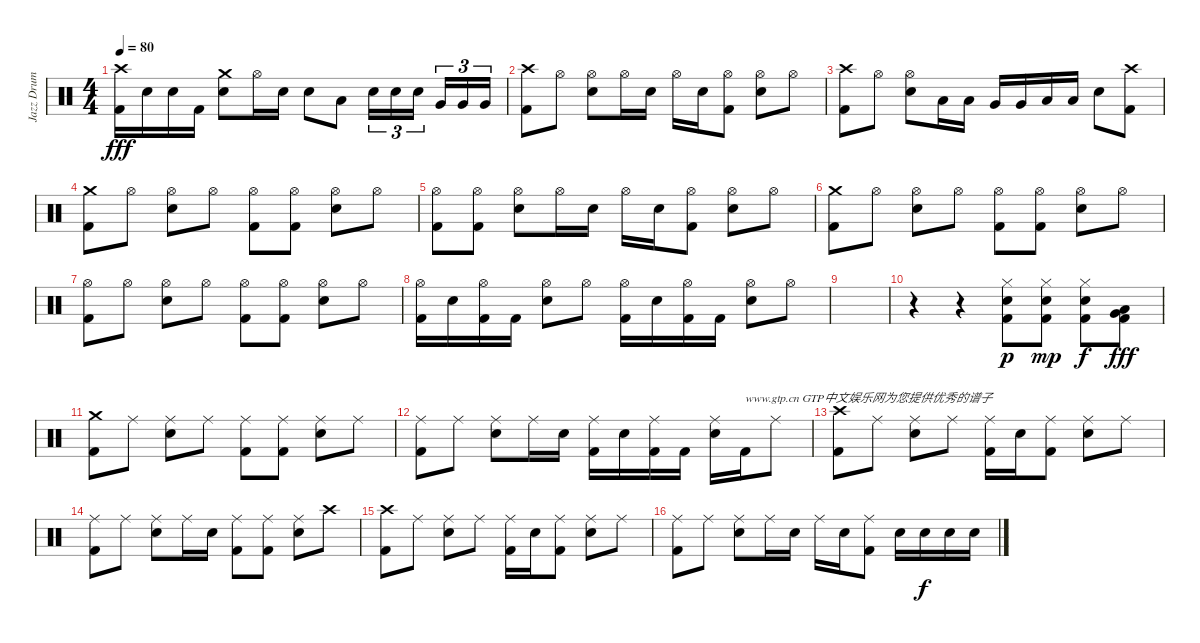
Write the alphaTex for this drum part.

\track ("Jazz Drum" "Jazz Drum") {instrument percussion}
\staff {score}
\articulation defaults
\ts (4 4)
\tempo 80
\clef neutral
\ks c
("Crash high (hit)" "Kick (hit) 2").16{dy fff} "Electric Snare (hit)".16 "Electric Snare (hit)".16 "Kick (hit) 2".16 ("Crash medium (hit)" "Electric Snare (hit)").8 "Hi-Hat (open)".16 "Electric Snare (hit)".16 "Electric Snare (hit)".8 "Low Tom (hit)".8 "Electric Snare (hit)".16{tu (3 2)} "Electric Snare (hit)".16{tu (3 2)} "Electric Snare (hit)".16{tu (3 2) beam splitsecondary} "Very Low Tom (hit)".16{tu (3 2)} "Very Low Tom (hit)".16{tu (3 2)} "Very Low Tom (hit)".16{tu (3 2)} |
("Crash high (hit)" "Kick (hit) 2").8 "Hi-Hat (open)".8 ("Hi-Hat (open)" "Electric Snare (hit)").8 "Hi-Hat (open)".16 "Electric Snare (hit)".16 "Hi-Hat (open)".16 "Electric Snare (hit)".16 ("Hi-Hat (open)" "Kick (hit) 2").8 ("Hi-Hat (open)" "Electric Snare (hit)").8 "Hi-Hat (open)".8 |
("Crash high (hit)" "Kick (hit) 2").8 "Hi-Hat (open)".8 ("Hi-Hat (open)" "Electric Snare (hit)").8 "Low Tom (hit)".16 "Low Tom (hit)".16 "Very Low Tom (hit)".16 "Very Low Tom (hit)".16 "Low Floor Tom (hit)".16 "Low Floor Tom (hit)".16 "Electric Snare (hit)".8 ("Crash high (hit)" "Kick (hit) 2").8 |
("Crash medium (hit)" "Kick (hit) 2").8 "Hi-Hat (open)".8 ("Hi-Hat (open)" "Electric Snare (hit)").8 "Hi-Hat (open)".8 ("Hi-Hat (open)" "Kick (hit) 2").8 ("Hi-Hat (open)" "Kick (hit) 2").8 ("Hi-Hat (open)" "Electric Snare (hit)").8 "Hi-Hat (open)".8 |
("Hi-Hat (open)" "Kick (hit) 2").8 ("Hi-Hat (open)" "Kick (hit) 2").8 ("Hi-Hat (open)" "Electric Snare (hit)").8 "Hi-Hat (open)".16 "Electric Snare (hit)".16 "Hi-Hat (open)".16 "Electric Snare (hit)".16 ("Hi-Hat (open)" "Kick (hit) 2").8 ("Hi-Hat (open)" "Electric Snare (hit)").8 "Hi-Hat (open)".8 |
("Crash medium (hit)" "Kick (hit) 2").8 "Hi-Hat (open)".8 ("Hi-Hat (open)" "Electric Snare (hit)").8 "Hi-Hat (open)".8 ("Hi-Hat (open)" "Kick (hit) 2").8 ("Hi-Hat (open)" "Kick (hit) 2").8 ("Hi-Hat (open)" "Electric Snare (hit)").8 "Hi-Hat (open)".8 |
("Hi-Hat (open)" "Kick (hit) 2").8 "Hi-Hat (open)".8 ("Hi-Hat (open)" "Electric Snare (hit)").8 "Hi-Hat (open)".8 ("Hi-Hat (open)" "Kick (hit) 2").8 ("Hi-Hat (open)" "Kick (hit) 2").8 ("Hi-Hat (open)" "Electric Snare (hit)").8 "Hi-Hat (open)".8 |
("Hi-Hat (open)" "Kick (hit) 2").16 "Electric Snare (hit)".16 ("Hi-Hat (open)" "Kick (hit) 2").16 "Kick (hit) 2".16 ("Hi-Hat (open)" "Electric Snare (hit)").8 "Hi-Hat (open)".8 ("Hi-Hat (open)" "Kick (hit) 2").16 "Electric Snare (hit)".16 ("Hi-Hat (open)" "Kick (hit) 2").16 "Kick (hit) 2".16 ("Hi-Hat (open)" "Electric Snare (hit)").8 "Hi-Hat (open)".8 |
|
r.4 r.4 ("Hi-Hat (closed)" "Electric Snare (hit)" "Kick (hit) 2").8{dy p} ("Hi-Hat (closed)" "Electric Snare (hit)" "Kick (hit) 2").8{dy mp} ("Hi-Hat (closed)" "Electric Snare (hit)" "Kick (hit) 2").8{dy f} ("Low Tom (hit)" "Very Low Tom (hit)" "Kick (hit) 2").8{dy fff} |
("Crash medium (hit)" "Kick (hit) 2").8 "Ride (middle)".8 ("Ride (middle)" "Electric Snare (hit)").8 "Ride (middle)".8 ("Ride (middle)" "Kick (hit) 2").8 ("Ride (middle)" "Kick (hit) 2").8 ("Ride (middle)" "Electric Snare (hit)").8 "Ride (middle)".8 |
("Ride (middle)" "Kick (hit) 2").8 "Ride (middle)".8 ("Ride (middle)" "Electric Snare (hit)").8 "Ride (middle)".16 "Electric Snare (hit)".16 ("Ride (middle)" "Kick (hit) 2").16 "Electric Snare (hit)".16 ("Ride (middle)" "Kick (hit) 2").16 "Kick (hit) 2".16 ("Ride (middle)" "Electric Snare (hit)").16 "Kick (hit) 2".16{txt "www.gtp.cn GTP中文娱乐网为您提供优秀的谱子"} "Ride (middle)".8 |
("Crash high (hit)" "Kick (hit) 2").8 "Ride (middle)".8 ("Ride (middle)" "Electric Snare (hit)").8 "Ride (middle)".8 ("Ride (middle)" "Kick (hit) 2").16 "Electric Snare (hit)".16 ("Ride (middle)" "Kick (hit) 2").8 ("Ride (middle)" "Electric Snare (hit)").8 "Ride (middle)".8 |
("Ride (middle)" "Kick (hit) 2").8 "Ride (middle)".8 ("Ride (middle)" "Electric Snare (hit)").8 "Ride (middle)".16 "Electric Snare (hit)".16 ("Ride (middle)" "Kick (hit) 2").8 ("Ride (middle)" "Kick (hit) 2").8 ("Ride (middle)" "Electric Snare (hit)").8 "Crash high (hit)".8 |
("Crash high (hit)" "Kick (hit) 2").8 "Ride (middle)".8 ("Ride (middle)" "Electric Snare (hit)").8 "Ride (middle)".8 ("Ride (middle)" "Kick (hit) 2").16 "Electric Snare (hit)".16 ("Ride (middle)" "Kick (hit) 2").8 ("Ride (middle)" "Electric Snare (hit)").8 "Ride (middle)".8 |
("Ride (middle)" "Kick (hit) 2").8 "Ride (middle)".8 ("Ride (middle)" "Electric Snare (hit)").8 "Ride (middle)".16 "Electric Snare (hit)".16 "Ride (middle)".16 "Electric Snare (hit)".16 ("Ride (middle)" "Kick (hit) 2").8 "Electric Snare (hit)".16 "Electric Snare (hit)".16{dy f} "Electric Snare (hit)".16 "Electric Snare (hit)".16
